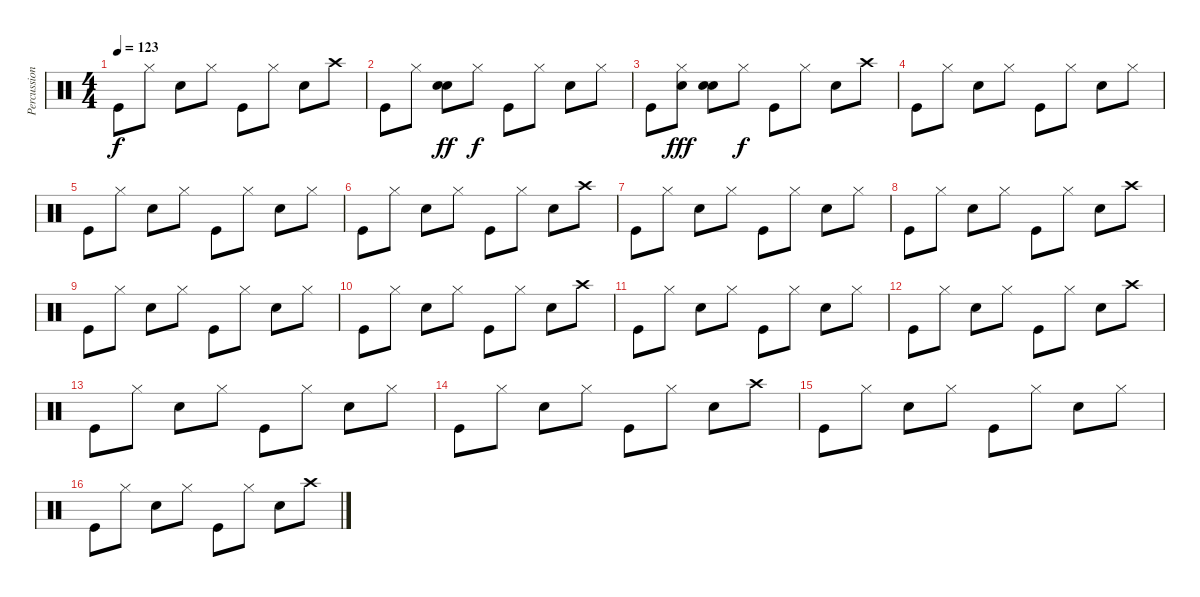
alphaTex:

\track ("Percussion" "Percussion") {instrument percussion}
\staff {score}
\articulation defaults
\ts (4 4)
\tempo 123
\clef neutral
\ks c "Kick (hit)".8{dy f} "Hi-Hat (closed)".8 "Snare (hit) 2".8 "Hi-Hat (closed)".8 "Kick (hit)".8 "Hi-Hat (closed)".8 "Snare (hit) 2".8 "Crash high (hit)".8
|
"Kick (hit)".8 "Hi-Hat (closed)".8 ("Hand Clap (hit)" "Snare (hit) 2").8{dy ff} "Hi-Hat (closed)".8{dy f} "Kick (hit)".8 "Hi-Hat (closed)".8 "Snare (hit) 2".8 "Hi-Hat (closed)".8 |
"Kick (hit)".8 ("Hi-Hat (closed)" "Hand Clap (hit)").8{dy fff} ("Hand Clap (hit)" "Snare (hit) 2").8 "Hi-Hat (closed)".8{dy f} "Kick (hit)".8 "Hi-Hat (closed)".8 "Snare (hit) 2".8 "Crash high (hit)".8 |
"Kick (hit)".8 "Hi-Hat (closed)".8 "Snare (hit) 2".8 "Hi-Hat (closed)".8 "Kick (hit)".8 "Hi-Hat (closed)".8 "Snare (hit) 2".8 "Hi-Hat (closed)".8 |
"Kick (hit)".8 "Hi-Hat (closed)".8 "Snare (hit) 2".8 "Hi-Hat (closed)".8 "Kick (hit)".8 "Hi-Hat (closed)".8 "Snare (hit) 2".8 "Hi-Hat (closed)".8 |
"Kick (hit)".8 "Hi-Hat (closed)".8 "Snare (hit) 2".8 "Hi-Hat (closed)".8 "Kick (hit)".8 "Hi-Hat (closed)".8 "Snare (hit) 2".8 "Crash high (hit)".8 |
"Kick (hit)".8 "Hi-Hat (closed)".8 "Snare (hit) 2".8 "Hi-Hat (closed)".8 "Kick (hit)".8 "Hi-Hat (closed)".8 "Snare (hit) 2".8 "Hi-Hat (closed)".8 |
"Kick (hit)".8 "Hi-Hat (closed)".8 "Snare (hit) 2".8 "Hi-Hat (closed)".8 "Kick (hit)".8 "Hi-Hat (closed)".8 "Snare (hit) 2".8 "Crash high (hit)".8 |
"Kick (hit)".8 "Hi-Hat (closed)".8 "Snare (hit) 2".8 "Hi-Hat (closed)".8 "Kick (hit)".8 "Hi-Hat (closed)".8 "Snare (hit) 2".8 "Hi-Hat (closed)".8 |
"Kick (hit)".8 "Hi-Hat (closed)".8 "Snare (hit) 2".8 "Hi-Hat (closed)".8 "Kick (hit)".8 "Hi-Hat (closed)".8 "Snare (hit) 2".8 "Crash high (hit)".8 |
"Kick (hit)".8 "Hi-Hat (closed)".8 "Snare (hit) 2".8 "Hi-Hat (closed)".8 "Kick (hit)".8 "Hi-Hat (closed)".8 "Snare (hit) 2".8 "Hi-Hat (closed)".8 |
"Kick (hit)".8 "Hi-Hat (closed)".8 "Snare (hit) 2".8 "Hi-Hat (closed)".8 "Kick (hit)".8 "Hi-Hat (closed)".8 "Snare (hit) 2".8 "Crash high (hit)".8 |
"Kick (hit)".8 "Hi-Hat (closed)".8 "Snare (hit) 2".8 "Hi-Hat (closed)".8 "Kick (hit)".8 "Hi-Hat (closed)".8 "Snare (hit) 2".8 "Hi-Hat (closed)".8 |
"Kick (hit)".8 "Hi-Hat (closed)".8 "Snare (hit) 2".8 "Hi-Hat (closed)".8 "Kick (hit)".8 "Hi-Hat (closed)".8 "Snare (hit) 2".8 "Crash high (hit)".8 |
"Kick (hit)".8 "Hi-Hat (closed)".8 "Snare (hit) 2".8 "Hi-Hat (closed)".8 "Kick (hit)".8 "Hi-Hat (closed)".8 "Snare (hit) 2".8 "Hi-Hat (closed)".8 |
"Kick (hit)".8 "Hi-Hat (closed)".8 "Snare (hit) 2".8 "Hi-Hat (closed)".8 "Kick (hit)".8 "Hi-Hat (closed)".8 "Snare (hit) 2".8 "Crash high (hit)".8
